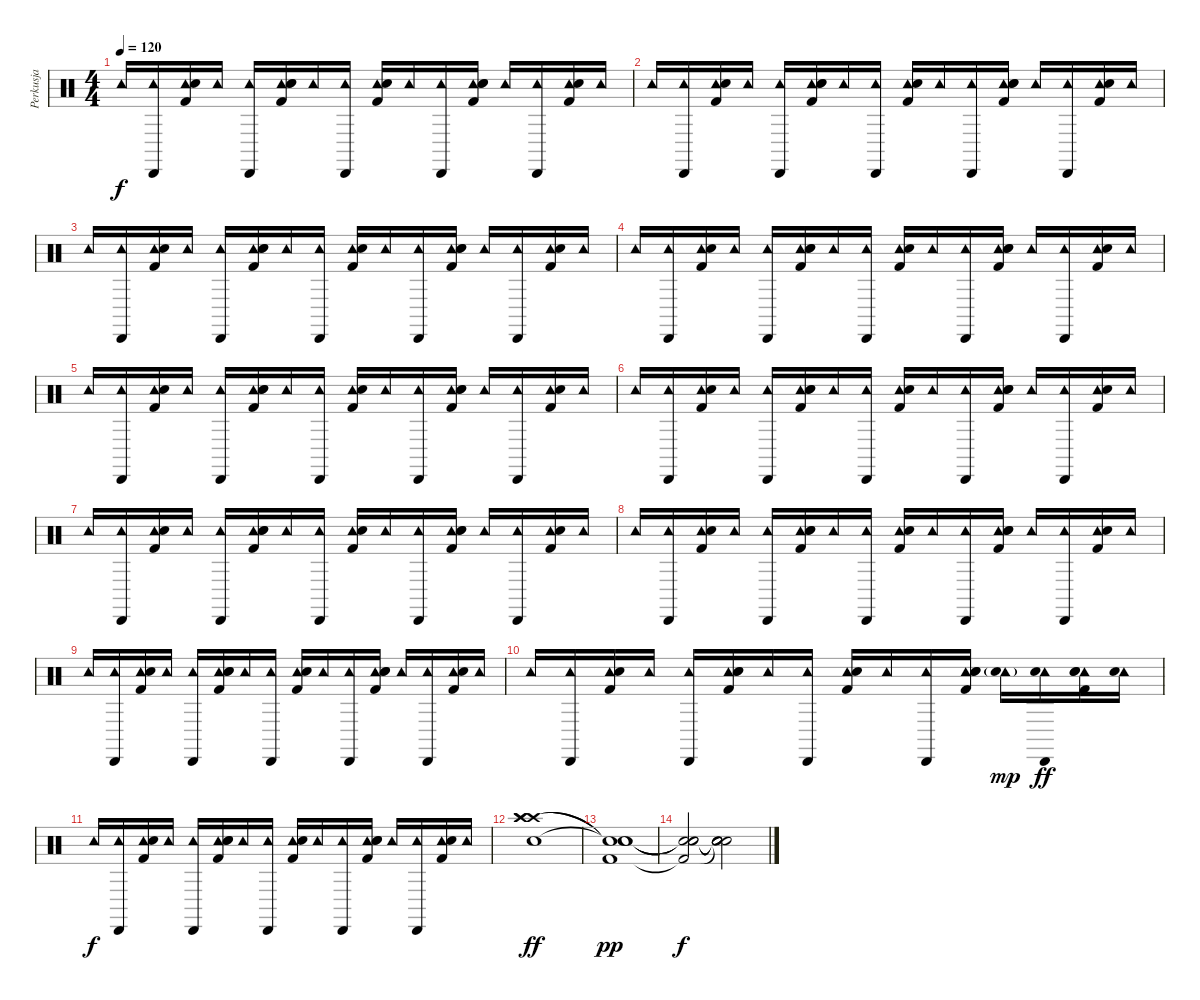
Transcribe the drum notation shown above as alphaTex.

\track ("Perkusja" "Perkusja") {instrument percussion}
\staff {score}
\articulation defaults
\ts (4 4)
\tempo 120
\clef neutral
\ks c "Tambourine (hit)".16{dy f}
("Tambourine (hit)" "Cabasa (hit)").16 ("Tambourine (hit)" "Kick (hit) 2" "Snare (hit) 2").16 "Tambourine (hit)".16 ("Tambourine (hit)" "Cabasa (hit)").16 ("Tambourine (hit)" "Kick (hit) 2" "Electric Snare (hit)" "Snare (hit) 2").16 "Tambourine (hit)".16 ("Tambourine (hit)" "Cabasa (hit)").16 ("Tambourine (hit)" "Kick (hit) 2" "Snare (hit) 2").16 "Tambourine (hit)".16 ("Tambourine (hit)" "Cabasa (hit)").16 ("Tambourine (hit)" "Kick (hit) 2" "Electric Snare (hit)" "Snare (hit) 2").16 "Tambourine (hit)".16 ("Tambourine (hit)" "Cabasa (hit)").16 ("Tambourine (hit)" "Kick (hit) 2" "Snare (hit) 2").16 "Tambourine (hit)".16 |
"Tambourine (hit)".16 ("Tambourine (hit)" "Cabasa (hit)").16 ("Tambourine (hit)" "Kick (hit) 2" "Snare (hit) 2").16 "Tambourine (hit)".16 ("Tambourine (hit)" "Cabasa (hit)").16 ("Tambourine (hit)" "Kick (hit) 2" "Electric Snare (hit)" "Snare (hit) 2").16 "Tambourine (hit)".16 ("Tambourine (hit)" "Cabasa (hit)").16 ("Tambourine (hit)" "Kick (hit) 2" "Snare (hit) 2").16 "Tambourine (hit)".16 ("Tambourine (hit)" "Cabasa (hit)").16 ("Tambourine (hit)" "Kick (hit) 2" "Electric Snare (hit)" "Snare (hit) 2").16 "Tambourine (hit)".16 ("Tambourine (hit)" "Cabasa (hit)").16 ("Tambourine (hit)" "Kick (hit) 2" "Snare (hit) 2").16 "Tambourine (hit)".16 |
"Tambourine (hit)".16 ("Tambourine (hit)" "Cabasa (hit)").16 ("Tambourine (hit)" "Kick (hit) 2" "Snare (hit) 2").16 "Tambourine (hit)".16 ("Tambourine (hit)" "Cabasa (hit)").16 ("Tambourine (hit)" "Kick (hit) 2" "Electric Snare (hit)" "Snare (hit) 2").16 "Tambourine (hit)".16 ("Tambourine (hit)" "Cabasa (hit)").16 ("Tambourine (hit)" "Kick (hit) 2" "Snare (hit) 2").16 "Tambourine (hit)".16 ("Tambourine (hit)" "Cabasa (hit)").16 ("Tambourine (hit)" "Kick (hit) 2" "Electric Snare (hit)" "Snare (hit) 2").16 "Tambourine (hit)".16 ("Tambourine (hit)" "Cabasa (hit)").16 ("Tambourine (hit)" "Kick (hit) 2" "Snare (hit) 2").16 "Tambourine (hit)".16 |
"Tambourine (hit)".16 ("Tambourine (hit)" "Cabasa (hit)").16 ("Tambourine (hit)" "Kick (hit) 2" "Snare (hit) 2").16 "Tambourine (hit)".16 ("Tambourine (hit)" "Cabasa (hit)").16 ("Tambourine (hit)" "Kick (hit) 2" "Electric Snare (hit)" "Snare (hit) 2").16 "Tambourine (hit)".16 ("Tambourine (hit)" "Cabasa (hit)").16 ("Tambourine (hit)" "Kick (hit) 2" "Snare (hit) 2").16 "Tambourine (hit)".16 ("Tambourine (hit)" "Cabasa (hit)").16 ("Tambourine (hit)" "Kick (hit) 2" "Electric Snare (hit)" "Snare (hit) 2").16 "Tambourine (hit)".16 ("Tambourine (hit)" "Cabasa (hit)").16 ("Tambourine (hit)" "Kick (hit) 2" "Snare (hit) 2").16 "Tambourine (hit)".16 |
"Tambourine (hit)".16 ("Tambourine (hit)" "Cabasa (hit)").16 ("Tambourine (hit)" "Kick (hit) 2" "Snare (hit) 2").16 "Tambourine (hit)".16 ("Tambourine (hit)" "Cabasa (hit)").16 ("Tambourine (hit)" "Kick (hit) 2" "Electric Snare (hit)" "Snare (hit) 2").16 "Tambourine (hit)".16 ("Tambourine (hit)" "Cabasa (hit)").16 ("Tambourine (hit)" "Kick (hit) 2" "Snare (hit) 2").16 "Tambourine (hit)".16 ("Tambourine (hit)" "Cabasa (hit)").16 ("Tambourine (hit)" "Kick (hit) 2" "Electric Snare (hit)" "Snare (hit) 2").16 "Tambourine (hit)".16 ("Tambourine (hit)" "Cabasa (hit)").16 ("Tambourine (hit)" "Kick (hit) 2" "Snare (hit) 2").16 "Tambourine (hit)".16 |
"Tambourine (hit)".16 ("Tambourine (hit)" "Cabasa (hit)").16 ("Tambourine (hit)" "Kick (hit) 2" "Snare (hit) 2").16 "Tambourine (hit)".16 ("Tambourine (hit)" "Cabasa (hit)").16 ("Tambourine (hit)" "Kick (hit) 2" "Electric Snare (hit)" "Snare (hit) 2").16 "Tambourine (hit)".16 ("Tambourine (hit)" "Cabasa (hit)").16 ("Tambourine (hit)" "Kick (hit) 2" "Snare (hit) 2").16 "Tambourine (hit)".16 ("Tambourine (hit)" "Cabasa (hit)").16 ("Tambourine (hit)" "Kick (hit) 2" "Electric Snare (hit)" "Snare (hit) 2").16 "Tambourine (hit)".16 ("Tambourine (hit)" "Cabasa (hit)").16 ("Tambourine (hit)" "Kick (hit) 2" "Snare (hit) 2").16 "Tambourine (hit)".16 |
"Tambourine (hit)".16 ("Tambourine (hit)" "Cabasa (hit)").16 ("Tambourine (hit)" "Kick (hit) 2" "Snare (hit) 2").16 "Tambourine (hit)".16 ("Tambourine (hit)" "Cabasa (hit)").16 ("Tambourine (hit)" "Kick (hit) 2" "Electric Snare (hit)" "Snare (hit) 2").16 "Tambourine (hit)".16 ("Tambourine (hit)" "Cabasa (hit)").16 ("Tambourine (hit)" "Kick (hit) 2" "Snare (hit) 2").16 "Tambourine (hit)".16 ("Tambourine (hit)" "Cabasa (hit)").16 ("Tambourine (hit)" "Kick (hit) 2" "Electric Snare (hit)" "Snare (hit) 2").16 "Tambourine (hit)".16 ("Tambourine (hit)" "Cabasa (hit)").16 ("Tambourine (hit)" "Kick (hit) 2" "Snare (hit) 2").16 "Tambourine (hit)".16 |
"Tambourine (hit)".16 ("Tambourine (hit)" "Cabasa (hit)").16 ("Tambourine (hit)" "Kick (hit) 2" "Snare (hit) 2").16 "Tambourine (hit)".16 ("Tambourine (hit)" "Cabasa (hit)").16 ("Tambourine (hit)" "Kick (hit) 2" "Electric Snare (hit)" "Snare (hit) 2").16 "Tambourine (hit)".16 ("Tambourine (hit)" "Cabasa (hit)").16 ("Tambourine (hit)" "Kick (hit) 2" "Snare (hit) 2").16 "Tambourine (hit)".16 ("Tambourine (hit)" "Cabasa (hit)").16 ("Tambourine (hit)" "Kick (hit) 2" "Electric Snare (hit)" "Snare (hit) 2").16 "Tambourine (hit)".16 ("Tambourine (hit)" "Cabasa (hit)").16 ("Tambourine (hit)" "Kick (hit) 2" "Snare (hit) 2").16 "Tambourine (hit)".16 |
"Tambourine (hit)".16 ("Tambourine (hit)" "Cabasa (hit)").16 ("Tambourine (hit)" "Kick (hit) 2" "Snare (hit) 2").16 "Tambourine (hit)".16 ("Tambourine (hit)" "Cabasa (hit)").16 ("Tambourine (hit)" "Kick (hit) 2" "Electric Snare (hit)" "Snare (hit) 2").16 "Tambourine (hit)".16 ("Tambourine (hit)" "Cabasa (hit)").16 ("Tambourine (hit)" "Kick (hit) 2" "Snare (hit) 2").16 "Tambourine (hit)".16 ("Tambourine (hit)" "Cabasa (hit)").16 ("Tambourine (hit)" "Kick (hit) 2" "Electric Snare (hit)" "Snare (hit) 2").16 "Tambourine (hit)".16 ("Tambourine (hit)" "Cabasa (hit)").16 ("Tambourine (hit)" "Kick (hit) 2" "Snare (hit) 2").16 "Tambourine (hit)".16 |
"Tambourine (hit)".16 ("Tambourine (hit)" "Cabasa (hit)").16 ("Tambourine (hit)" "Kick (hit) 2" "Snare (hit) 2").16 "Tambourine (hit)".16 ("Tambourine (hit)" "Cabasa (hit)").16 ("Tambourine (hit)" "Kick (hit) 2" "Electric Snare (hit)" "Snare (hit) 2").16 "Tambourine (hit)".16 ("Tambourine (hit)" "Cabasa (hit)").16 ("Tambourine (hit)" "Kick (hit) 2" "Snare (hit) 2").16 "Tambourine (hit)".16 ("Tambourine (hit)" "Cabasa (hit)").16 ("Tambourine (hit)" "Kick (hit) 2" "Electric Snare (hit)" "Snare (hit) 2").16 ("Tambourine (hit)" "Electric Snare (hit)"{g}).16{dy mp} ("Tambourine (hit)" "Electric Snare (hit)" "Cabasa (hit)").16{dy ff} ("Tambourine (hit)" "Kick (hit) 2" "Snare (hit) 2" "Electric Snare (hit)").16 ("Tambourine (hit)" "Electric Snare (hit)").16 |
"Tambourine (hit)".16{dy f volume 16} ("Tambourine (hit)" "Cabasa (hit)").16 ("Tambourine (hit)" "Kick (hit) 2" "Snare (hit) 2").16 "Tambourine (hit)".16 ("Tambourine (hit)" "Cabasa (hit)").16 ("Tambourine (hit)" "Kick (hit) 2" "Electric Snare (hit)" "Snare (hit) 2").16 "Tambourine (hit)".16 ("Tambourine (hit)" "Cabasa (hit)").16 ("Tambourine (hit)" "Kick (hit) 2" "Snare (hit) 2").16 "Tambourine (hit)".16 ("Tambourine (hit)" "Cabasa (hit)").16 ("Tambourine (hit)" "Kick (hit) 2" "Electric Snare (hit)" "Snare (hit) 2").16 "Tambourine (hit)".16 ("Tambourine (hit)" "Cabasa (hit)").16 ("Tambourine (hit)" "Kick (hit) 2" "Snare (hit) 2").16 "Tambourine (hit)".16 |
("Electric Snare (hit)" "Crash high (hit)" "Crash high (hit)" "Crash high (hit)").1{dy ff volume 0} |
("Snare (hit)"{t} "Kick (hit) 2" "Snare (hit)"{t} "Snare (hit)"{t}).1{dy pp} |
("Snare (hit)"{t} "Kick (hit) 2"{t} "Snare (hit)"{t} "Snare (hit)"{t}).2{dy f} ("Snare (hit)"{t} "Snare (hit)"{t} "Snare (hit)"{t} "Snare (hit)"{t} "Snare (hit)").2
